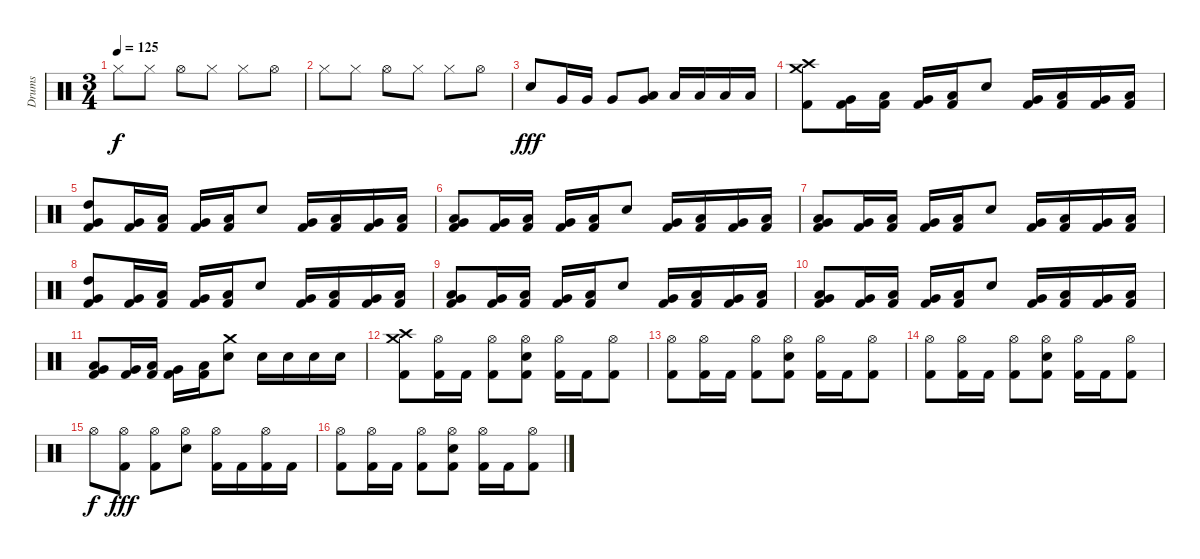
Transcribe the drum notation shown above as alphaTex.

\track ("Drums" "Drums") {instrument percussion}
\staff {score}
\articulation defaults
\ts (3 4)
\tempo 125
\clef neutral
\ks c "Hi-Hat (closed)".8{dy f} "Hi-Hat (closed)".8 "Hi-Hat (open)".8 "Hi-Hat (closed)".8 "Hi-Hat (closed)".8 "Hi-Hat (open)".8
|
"Hi-Hat (closed)".8 "Hi-Hat (closed)".8 "Hi-Hat (open)".8 "Hi-Hat (closed)".8 "Hi-Hat (closed)".8 "Hi-Hat (open)".8 |
"Electric Snare (hit)".8{dy fff} "Very Low Tom (hit)".16 "Very Low Tom (hit)".16 "Very Low Tom (hit)".8 ("Low Tom (hit)" "Very Low Tom (hit)").8 "Low Tom (hit)".16 "Low Tom (hit)".16 "Low Tom (hit)".16 "Low Tom (hit)".16 |
("Kick (hit) 2" "Crash medium (hit)" "Crash high (hit)").8 ("Kick (hit) 2" "Very Low Tom (hit)").16 ("Kick (hit) 2" "Low Tom (hit)").16 ("Kick (hit) 2" "Very Low Tom (hit)").16 ("Kick (hit) 2" "Low Tom (hit)").16 "Electric Snare (hit)".8 ("Kick (hit) 2" "Very Low Tom (hit)").16 ("Kick (hit) 2" "Low Tom (hit)").16 ("Kick (hit) 2" "Very Low Tom (hit)").16 ("Kick (hit) 2" "Low Tom (hit)").16 |
("Kick (hit) 2" "Very Low Tom (hit)" "High Tom (hit)").8 ("Kick (hit) 2" "Very Low Tom (hit)").16 ("Kick (hit) 2" "Low Tom (hit)").16 ("Kick (hit) 2" "Very Low Tom (hit)").16 ("Kick (hit) 2" "Low Tom (hit)").16 "Electric Snare (hit)".8 ("Kick (hit) 2" "Very Low Tom (hit)").16 ("Kick (hit) 2" "Low Tom (hit)").16 ("Kick (hit) 2" "Very Low Tom (hit)").16 ("Kick (hit) 2" "Low Tom (hit)").16 |
("Kick (hit) 2" "Low Tom (hit)" "Very Low Tom (hit)").8 ("Kick (hit) 2" "Very Low Tom (hit)").16 ("Kick (hit) 2" "Low Tom (hit)").16 ("Kick (hit) 2" "Very Low Tom (hit)").16 ("Kick (hit) 2" "Low Tom (hit)").16 "Electric Snare (hit)".8 ("Kick (hit) 2" "Very Low Tom (hit)").16 ("Kick (hit) 2" "Low Tom (hit)").16 ("Kick (hit) 2" "Very Low Tom (hit)").16 ("Kick (hit) 2" "Low Tom (hit)").16 |
("Kick (hit) 2" "Low Tom (hit)" "Very Low Tom (hit)").8 ("Kick (hit) 2" "Very Low Tom (hit)").16 ("Kick (hit) 2" "Low Tom (hit)").16 ("Kick (hit) 2" "Very Low Tom (hit)").16 ("Kick (hit) 2" "Low Tom (hit)").16 "Electric Snare (hit)".8 ("Kick (hit) 2" "Very Low Tom (hit)").16 ("Kick (hit) 2" "Low Tom (hit)").16 ("Kick (hit) 2" "Very Low Tom (hit)").16 ("Kick (hit) 2" "Low Tom (hit)").16 |
("Kick (hit) 2" "Very Low Tom (hit)" "High Tom (hit)").8 ("Kick (hit) 2" "Very Low Tom (hit)").16 ("Kick (hit) 2" "Low Tom (hit)").16 ("Kick (hit) 2" "Very Low Tom (hit)").16 ("Kick (hit) 2" "Low Tom (hit)").16 "Electric Snare (hit)".8 ("Kick (hit) 2" "Very Low Tom (hit)").16 ("Kick (hit) 2" "Low Tom (hit)").16 ("Kick (hit) 2" "Very Low Tom (hit)").16 ("Kick (hit) 2" "Low Tom (hit)").16 |
("Kick (hit) 2" "Low Tom (hit)" "Very Low Tom (hit)").8 ("Kick (hit) 2" "Very Low Tom (hit)").16 ("Kick (hit) 2" "Low Tom (hit)").16 ("Kick (hit) 2" "Very Low Tom (hit)").16 ("Kick (hit) 2" "Low Tom (hit)").16 "Electric Snare (hit)".8 ("Kick (hit) 2" "Very Low Tom (hit)").16 ("Kick (hit) 2" "Low Tom (hit)").16 ("Kick (hit) 2" "Very Low Tom (hit)").16 ("Kick (hit) 2" "Low Tom (hit)").16 |
("Kick (hit) 2" "Low Tom (hit)" "Very Low Tom (hit)").8 ("Kick (hit) 2" "Very Low Tom (hit)").16 ("Kick (hit) 2" "Low Tom (hit)").16 ("Kick (hit) 2" "Very Low Tom (hit)").16 ("Kick (hit) 2" "Low Tom (hit)").16 "Electric Snare (hit)".8 ("Kick (hit) 2" "Very Low Tom (hit)").16 ("Kick (hit) 2" "Low Tom (hit)").16 ("Kick (hit) 2" "Very Low Tom (hit)").16 ("Kick (hit) 2" "Low Tom (hit)").16 |
("Kick (hit) 2" "Low Tom (hit)" "Very Low Tom (hit)").8 ("Kick (hit) 2" "Very Low Tom (hit)").16 ("Kick (hit) 2" "Low Tom (hit)").16 ("Kick (hit) 2" "Very Low Tom (hit)").16 ("Kick (hit) 2" "Low Tom (hit)").16 ("Electric Snare (hit)" "Crash medium (hit)").8 "Electric Snare (hit)".16 "Electric Snare (hit)".16 "Electric Snare (hit)".16 "Electric Snare (hit)".16 |
("Kick (hit) 2" "Crash medium (hit)" "Crash high (hit)").8 ("Kick (hit) 2" "Hi-Hat (open)").16 "Kick (hit) 2".16 ("Kick (hit) 2" "Hi-Hat (open)").8 ("Kick (hit) 2" "Electric Snare (hit)" "Hi-Hat (open)").8 ("Kick (hit) 2" "Hi-Hat (open)").16 "Kick (hit) 2".16 ("Kick (hit) 2" "Hi-Hat (open)").8 |
("Kick (hit) 2" "Hi-Hat (open)").8 ("Kick (hit) 2" "Hi-Hat (open)").16 "Kick (hit) 2".16 ("Kick (hit) 2" "Hi-Hat (open)").8 ("Kick (hit) 2" "Electric Snare (hit)" "Hi-Hat (open)").8 ("Kick (hit) 2" "Hi-Hat (open)").16 "Kick (hit) 2".16 ("Kick (hit) 2" "Hi-Hat (open)").8 |
("Kick (hit) 2" "Hi-Hat (open)").8 ("Kick (hit) 2" "Hi-Hat (open)").16 "Kick (hit) 2".16 ("Kick (hit) 2" "Hi-Hat (open)").8 ("Kick (hit) 2" "Electric Snare (hit)" "Hi-Hat (open)").8 ("Kick (hit) 2" "Hi-Hat (open)").16 "Kick (hit) 2".16 ("Kick (hit) 2" "Hi-Hat (open)").8 |
"Hi-Hat (open)".8{dy f} ("Kick (hit) 2" "Hi-Hat (open)").8{dy fff} ("Kick (hit) 2" "Hi-Hat (open)").8 ("Electric Snare (hit)" "Hi-Hat (open)").8 ("Kick (hit) 2" "Hi-Hat (open)").16 "Kick (hit) 2".16 ("Kick (hit) 2" "Hi-Hat (open)").16 "Kick (hit) 2".16 |
("Kick (hit) 2" "Hi-Hat (open)").8 ("Kick (hit) 2" "Hi-Hat (open)").16 "Kick (hit) 2".16 ("Kick (hit) 2" "Hi-Hat (open)").8 ("Kick (hit) 2" "Electric Snare (hit)" "Hi-Hat (open)").8 ("Kick (hit) 2" "Hi-Hat (open)").16 "Kick (hit) 2".16 ("Kick (hit) 2" "Hi-Hat (open)").8
